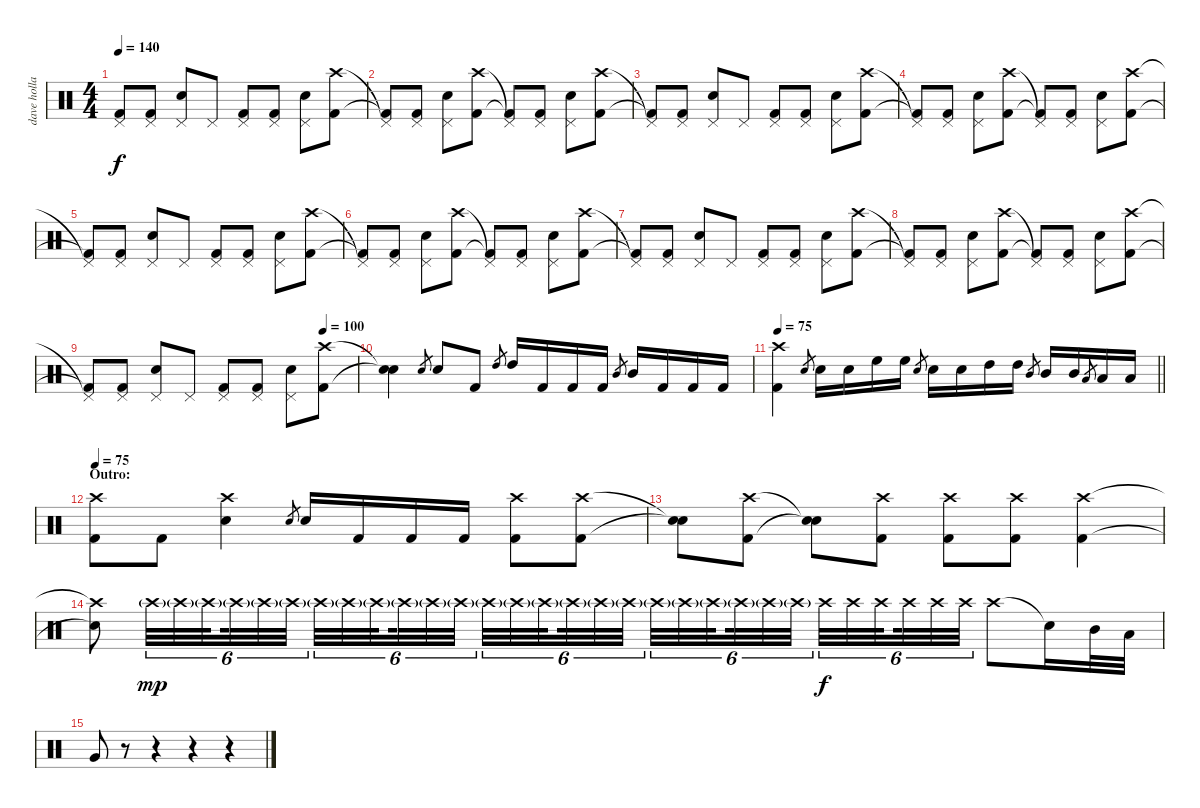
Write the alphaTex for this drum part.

\track ("dave holland" "dave holla") {instrument percussion}
\staff {score}
\articulation defaults
\ts (4 4)
\tempo 140
\clef neutral
\ks c
("Pedal Hi-Hat (hit)"{t} "Kick (hit) 2"{t}).8{dy f} ("Pedal Hi-Hat (hit)" "Kick (hit) 2").8 ("Pedal Hi-Hat (hit)" "Snare (hit) 2").8 "Pedal Hi-Hat (hit)".8 ("Pedal Hi-Hat (hit)" "Kick (hit) 2").8 ("Pedal Hi-Hat (hit)" "Kick (hit) 2").8 ("Pedal Hi-Hat (hit)" "Snare (hit) 2").8 ("Crash high (hit)" "Kick (hit) 2").8 |
("Pedal Hi-Hat (hit)"{t} "Kick (hit) 2"{t}).8 ("Pedal Hi-Hat (hit)" "Kick (hit) 2").8 ("Pedal Hi-Hat (hit)" "Snare (hit) 2").8 ("Crash high (hit)" "Kick (hit) 2").8 ("Pedal Hi-Hat (hit)"{t} "Kick (hit) 2"{t}).8 ("Pedal Hi-Hat (hit)" "Kick (hit) 2").8 ("Pedal Hi-Hat (hit)" "Snare (hit) 2").8 ("Crash high (hit)" "Kick (hit) 2").8 |
("Pedal Hi-Hat (hit)"{t} "Kick (hit) 2"{t}).8 ("Pedal Hi-Hat (hit)" "Kick (hit) 2").8 ("Pedal Hi-Hat (hit)" "Snare (hit) 2").8 "Pedal Hi-Hat (hit)".8 ("Pedal Hi-Hat (hit)" "Kick (hit) 2").8 ("Pedal Hi-Hat (hit)" "Kick (hit) 2").8 ("Pedal Hi-Hat (hit)" "Snare (hit) 2").8 ("Crash high (hit)" "Kick (hit) 2").8 |
("Pedal Hi-Hat (hit)"{t} "Kick (hit) 2"{t}).8 ("Pedal Hi-Hat (hit)" "Kick (hit) 2").8 ("Pedal Hi-Hat (hit)" "Snare (hit) 2").8 ("Crash high (hit)" "Kick (hit) 2").8 ("Pedal Hi-Hat (hit)"{t} "Kick (hit) 2"{t}).8 ("Pedal Hi-Hat (hit)" "Kick (hit) 2").8 ("Pedal Hi-Hat (hit)" "Snare (hit) 2").8 ("Crash high (hit)" "Kick (hit) 2").8 |
("Pedal Hi-Hat (hit)"{t} "Kick (hit) 2"{t}).8 ("Pedal Hi-Hat (hit)" "Kick (hit) 2").8 ("Pedal Hi-Hat (hit)" "Snare (hit) 2").8 "Pedal Hi-Hat (hit)".8 ("Pedal Hi-Hat (hit)" "Kick (hit) 2").8 ("Pedal Hi-Hat (hit)" "Kick (hit) 2").8 ("Pedal Hi-Hat (hit)" "Snare (hit) 2").8 ("Crash high (hit)" "Kick (hit) 2").8 |
("Pedal Hi-Hat (hit)"{t} "Kick (hit) 2"{t}).8 ("Pedal Hi-Hat (hit)" "Kick (hit) 2").8 ("Pedal Hi-Hat (hit)" "Snare (hit) 2").8 ("Crash high (hit)" "Kick (hit) 2").8 ("Pedal Hi-Hat (hit)"{t} "Kick (hit) 2"{t}).8 ("Pedal Hi-Hat (hit)" "Kick (hit) 2").8 ("Pedal Hi-Hat (hit)" "Snare (hit) 2").8 ("Crash high (hit)" "Kick (hit) 2").8 |
("Pedal Hi-Hat (hit)"{t} "Kick (hit) 2"{t}).8 ("Pedal Hi-Hat (hit)" "Kick (hit) 2").8 ("Pedal Hi-Hat (hit)" "Snare (hit) 2").8 "Pedal Hi-Hat (hit)".8 ("Pedal Hi-Hat (hit)" "Kick (hit) 2").8 ("Pedal Hi-Hat (hit)" "Kick (hit) 2").8 ("Pedal Hi-Hat (hit)" "Snare (hit) 2").8 ("Crash high (hit)" "Kick (hit) 2").8 |
("Pedal Hi-Hat (hit)"{t} "Kick (hit) 2"{t}).8 ("Pedal Hi-Hat (hit)" "Kick (hit) 2").8 ("Pedal Hi-Hat (hit)" "Snare (hit) 2").8 ("Crash high (hit)" "Kick (hit) 2").8 ("Pedal Hi-Hat (hit)"{t} "Kick (hit) 2"{t}).8 ("Pedal Hi-Hat (hit)" "Kick (hit) 2").8 ("Pedal Hi-Hat (hit)" "Snare (hit) 2").8 ("Crash high (hit)" "Kick (hit) 2").8 |
\tempo (100 0.875)
("Pedal Hi-Hat (hit)"{t} "Kick (hit) 2"{t}).8 ("Pedal Hi-Hat (hit)" "Kick (hit) 2").8 ("Pedal Hi-Hat (hit)" "Snare (hit) 2").8 "Pedal Hi-Hat (hit)".8 ("Pedal Hi-Hat (hit)" "Kick (hit) 2").8 ("Pedal Hi-Hat (hit)" "Kick (hit) 2").8 ("Pedal Hi-Hat (hit)" "Snare (hit) 2").8 ("Crash high (hit)" "Kick (hit) 2").8 |
("Snare (hit)"{t} "Snare (hit)"{t}).4 "Snare (hit) 2".8{gr} "Snare (hit) 2".8 "Kick (hit) 2".8 "High Tom (hit)".8{gr} "High Tom (hit)".16 "Kick (hit) 2".16 "Kick (hit) 2".16 "Kick (hit) 2".16 "Mid Tom (hit)".8{gr} "Mid Tom (hit)".16 "Kick (hit) 2".16 "Kick (hit) 2".16 "Kick (hit) 2".16 |
\tempo 75
\barLineRight lightlight
("Crash high (hit)" "Kick (hit) 2").4 "Snare (hit) 2".8{gr} "Snare (hit) 2".16 "Snare (hit) 2".16 "High Floor Tom (hit)".16 "High Floor Tom (hit)".16 "Snare (hit) 2".8{gr} "Snare (hit) 2".16 "Snare (hit) 2".16 "High Tom (hit)".16 "High Tom (hit)".16 "Mid Tom (hit)".8{gr} "Mid Tom (hit)".16 "Mid Tom (hit)".16 "Low Tom (hit)".8{gr} "Low Tom (hit)".16 "Low Tom (hit)".16 |
\section ("" "Outro:")
\tempo 75
("Crash high (hit)" "Kick (hit) 2").8 "Kick (hit) 2".8 ("Crash high (hit)" "Snare (hit) 2").4 "Snare (hit) 2".8{gr} "Snare (hit) 2".16 "Kick (hit) 2".16 "Kick (hit) 2".16 "Kick (hit) 2".16 ("Crash high (hit)" "Kick (hit) 2").8 ("Crash high (hit)" "Kick (hit) 2").8 |
("Snare (hit)"{t} "Snare (hit)"{t}).8 ("Crash high (hit)" "Kick (hit) 2").8 ("Snare (hit)"{t} "Snare (hit)"{t}).8 ("Crash high (hit)" "Kick (hit) 2").8 ("Crash high (hit)" "Kick (hit) 2").8 ("Crash high (hit)" "Kick (hit) 2").8 ("Crash high (hit)" "Kick (hit) 2").4 |
("Crash high (hit)"{t} "Snare (hit)"{t}).8 "Crash high (hit)"{g}.32{tu (6 4) dy mp} "Crash high (hit)"{g}.32{tu (6 4)} "Crash high (hit)"{g}.32{tu (6 4) beam splitsecondary} "Crash high (hit)"{g}.32{tu (6 4)} "Crash high (hit)"{g}.32{tu (6 4)} "Crash high (hit)"{g}.32{tu (6 4)} "Crash high (hit)"{g}.32{tu (6 4)} "Crash high (hit)"{g}.32{tu (6 4)} "Crash high (hit)"{g}.32{tu (6 4) beam splitsecondary} "Crash high (hit)"{g}.32{tu (6 4)} "Crash high (hit)"{g}.32{tu (6 4)} "Crash high (hit)"{g}.32{tu (6 4) beam splitsecondary} "Crash high (hit)"{g}.32{tu (6 4)} "Crash high (hit)"{g}.32{tu (6 4)} "Crash high (hit)"{g}.32{tu (6 4) beam splitsecondary} "Crash high (hit)"{g}.32{tu (6 4)} "Crash high (hit)"{g}.32{tu (6 4)} "Crash high (hit)"{g}.32{tu (6 4)} "Crash high (hit)"{g}.32{tu (6 4)} "Crash high (hit)"{g}.32{tu (6 4)} "Crash high (hit)"{g}.32{tu (6 4) beam splitsecondary} "Crash high (hit)"{g}.32{tu (6 4)} "Crash high (hit)"{g}.32{tu (6 4)} "Crash high (hit)"{g}.32{tu (6 4) beam splitsecondary} "Crash high (hit)".32{tu (6 4) dy f} "Crash high (hit)".32{tu (6 4)} "Crash high (hit)".32{tu (6 4) beam splitsecondary} "Crash high (hit)".32{tu (6 4)} "Crash high (hit)".32{tu (6 4)} "Crash high (hit)".32{tu (6 4)} "Crash high (hit)".8 "Snare (hit)"{t}.16 "Mid Tom (hit)".32 "Low Tom (hit)".32 |
"Very Low Tom (hit)".8 r.8 r.4 r.4 r.4
